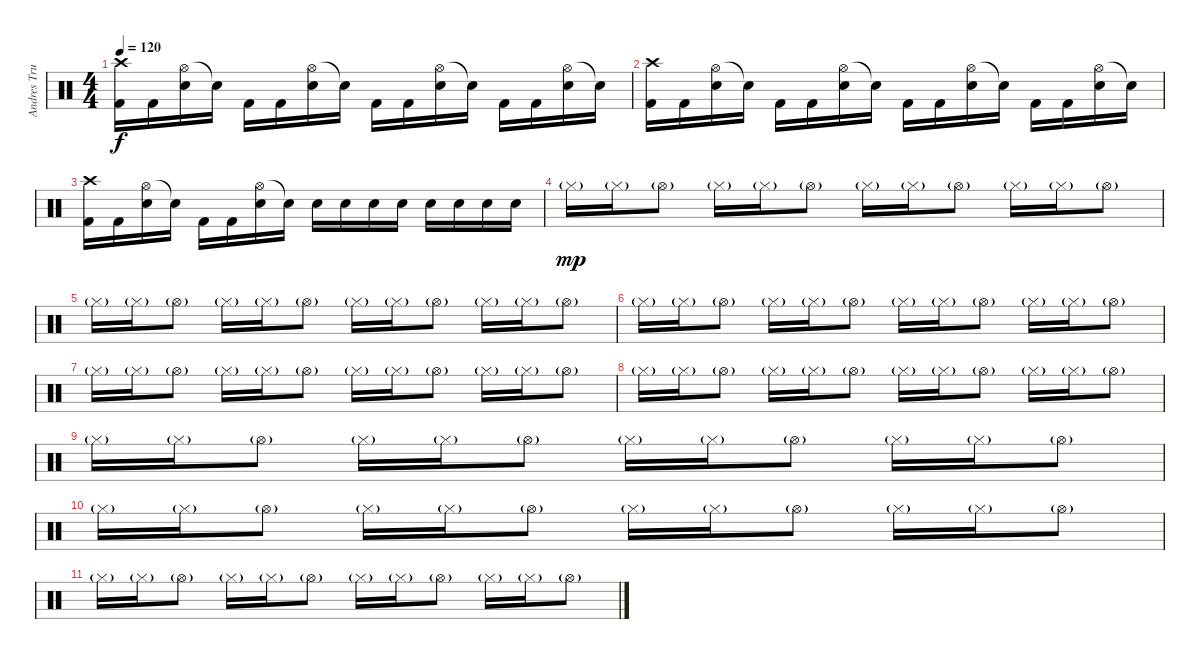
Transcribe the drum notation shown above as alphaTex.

\track ("Andres Trujillo" "Andres Tru") {instrument percussion}
\staff {score}
\articulation defaults
\ts (4 4)
\tempo 120
\clef neutral
\ks c
("Crash high (hit)" "Kick (hit) 2").16{dy f} "Kick (hit) 2".16 ("Hi-Hat (open)" "Electric Snare (hit)").16 "Snare (hit)"{t}.16 "Kick (hit) 2".16 "Kick (hit) 2".16 ("Hi-Hat (open)" "Electric Snare (hit)").16 "Snare (hit)"{t}.16 "Kick (hit) 2".16 "Kick (hit) 2".16 ("Hi-Hat (open)" "Electric Snare (hit)").16 "Snare (hit)"{t}.16 "Kick (hit) 2".16 "Kick (hit) 2".16 ("Hi-Hat (open)" "Electric Snare (hit)").16 "Snare (hit)"{t}.16 |
("Crash high (hit)" "Kick (hit) 2").16 "Kick (hit) 2".16 ("Hi-Hat (open)" "Electric Snare (hit)").16 "Snare (hit)"{t}.16 "Kick (hit) 2".16 "Kick (hit) 2".16 ("Hi-Hat (open)" "Electric Snare (hit)").16 "Snare (hit)"{t}.16 "Kick (hit) 2".16 "Kick (hit) 2".16 ("Hi-Hat (open)" "Electric Snare (hit)").16 "Snare (hit)"{t}.16 "Kick (hit) 2".16 "Kick (hit) 2".16 ("Hi-Hat (open)" "Electric Snare (hit)").16 "Snare (hit)"{t}.16 |
("Crash high (hit)" "Kick (hit) 2").16 "Kick (hit) 2".16 ("Hi-Hat (open)" "Electric Snare (hit)").16 "Snare (hit)"{t}.16 "Kick (hit) 2".16 "Kick (hit) 2".16 ("Hi-Hat (open)" "Electric Snare (hit)").16 "Snare (hit)"{t}.16 "Electric Snare (hit)".16 "Electric Snare (hit)".16 "Electric Snare (hit)".16 "Electric Snare (hit)".16 "Electric Snare (hit)".16 "Electric Snare (hit)".16 "Electric Snare (hit)".16 "Electric Snare (hit)".16 |
"Hi-Hat (closed)"{g}.16{dy mp} "Hi-Hat (closed)"{g}.16 "Hi-Hat (open)"{g}.8 "Hi-Hat (closed)"{g}.16 "Hi-Hat (closed)"{g}.16 "Hi-Hat (open)"{g}.8 "Hi-Hat (closed)"{g}.16 "Hi-Hat (closed)"{g}.16 "Hi-Hat (open)"{g}.8 "Hi-Hat (closed)"{g}.16 "Hi-Hat (closed)"{g}.16 "Hi-Hat (open)"{g}.8 |
"Hi-Hat (closed)"{g}.16 "Hi-Hat (closed)"{g}.16 "Hi-Hat (open)"{g}.8 "Hi-Hat (closed)"{g}.16 "Hi-Hat (closed)"{g}.16 "Hi-Hat (open)"{g}.8 "Hi-Hat (closed)"{g}.16 "Hi-Hat (closed)"{g}.16 "Hi-Hat (open)"{g}.8 "Hi-Hat (closed)"{g}.16 "Hi-Hat (closed)"{g}.16 "Hi-Hat (open)"{g}.8 |
"Hi-Hat (closed)"{g}.16 "Hi-Hat (closed)"{g}.16 "Hi-Hat (open)"{g}.8 "Hi-Hat (closed)"{g}.16 "Hi-Hat (closed)"{g}.16 "Hi-Hat (open)"{g}.8 "Hi-Hat (closed)"{g}.16 "Hi-Hat (closed)"{g}.16 "Hi-Hat (open)"{g}.8 "Hi-Hat (closed)"{g}.16 "Hi-Hat (closed)"{g}.16 "Hi-Hat (open)"{g}.8 |
"Hi-Hat (closed)"{g}.16 "Hi-Hat (closed)"{g}.16 "Hi-Hat (open)"{g}.8 "Hi-Hat (closed)"{g}.16 "Hi-Hat (closed)"{g}.16 "Hi-Hat (open)"{g}.8 "Hi-Hat (closed)"{g}.16 "Hi-Hat (closed)"{g}.16 "Hi-Hat (open)"{g}.8 "Hi-Hat (closed)"{g}.16 "Hi-Hat (closed)"{g}.16 "Hi-Hat (open)"{g}.8 |
"Hi-Hat (closed)"{g}.16 "Hi-Hat (closed)"{g}.16 "Hi-Hat (open)"{g}.8 "Hi-Hat (closed)"{g}.16 "Hi-Hat (closed)"{g}.16 "Hi-Hat (open)"{g}.8 "Hi-Hat (closed)"{g}.16 "Hi-Hat (closed)"{g}.16 "Hi-Hat (open)"{g}.8 "Hi-Hat (closed)"{g}.16 "Hi-Hat (closed)"{g}.16 "Hi-Hat (open)"{g}.8 |
"Hi-Hat (closed)"{g}.16 "Hi-Hat (closed)"{g}.16 "Hi-Hat (open)"{g}.8 "Hi-Hat (closed)"{g}.16 "Hi-Hat (closed)"{g}.16 "Hi-Hat (open)"{g}.8 "Hi-Hat (closed)"{g}.16 "Hi-Hat (closed)"{g}.16 "Hi-Hat (open)"{g}.8 "Hi-Hat (closed)"{g}.16 "Hi-Hat (closed)"{g}.16 "Hi-Hat (open)"{g}.8 |
"Hi-Hat (closed)"{g}.16 "Hi-Hat (closed)"{g}.16 "Hi-Hat (open)"{g}.8 "Hi-Hat (closed)"{g}.16 "Hi-Hat (closed)"{g}.16 "Hi-Hat (open)"{g}.8 "Hi-Hat (closed)"{g}.16 "Hi-Hat (closed)"{g}.16 "Hi-Hat (open)"{g}.8 "Hi-Hat (closed)"{g}.16 "Hi-Hat (closed)"{g}.16 "Hi-Hat (open)"{g}.8 |
"Hi-Hat (closed)"{g}.16 "Hi-Hat (closed)"{g}.16 "Hi-Hat (open)"{g}.8 "Hi-Hat (closed)"{g}.16 "Hi-Hat (closed)"{g}.16 "Hi-Hat (open)"{g}.8 "Hi-Hat (closed)"{g}.16 "Hi-Hat (closed)"{g}.16 "Hi-Hat (open)"{g}.8 "Hi-Hat (closed)"{g}.16 "Hi-Hat (closed)"{g}.16 "Hi-Hat (open)"{g}.8
